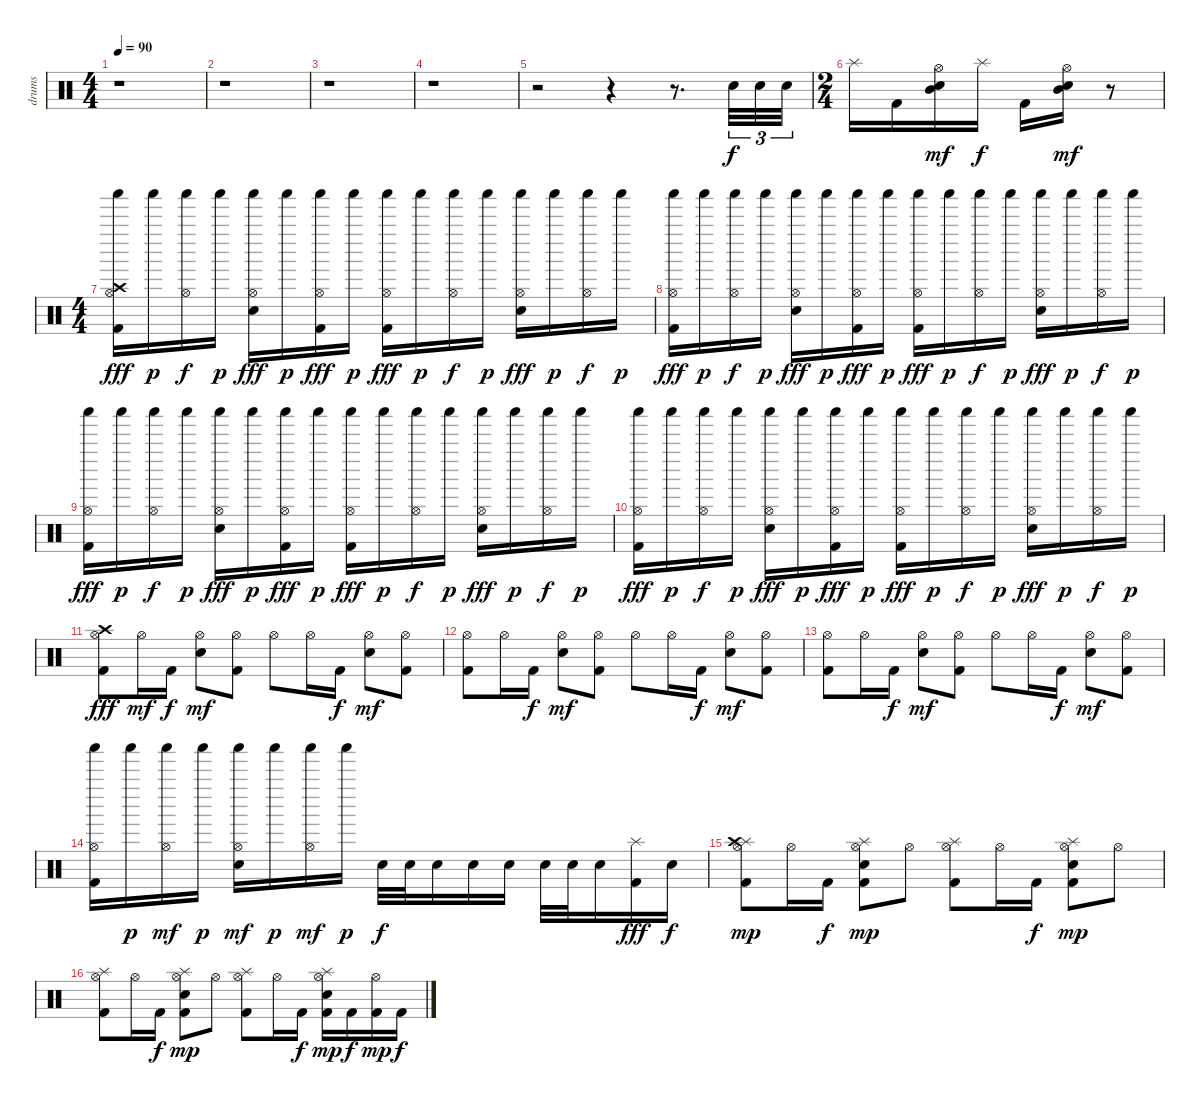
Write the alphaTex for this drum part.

\track ("drums" "drums") {instrument percussion}
\staff {score}
\articulation defaults
\ts (4 4)
\tempo 90
\clef neutral
\ks c
r.1{dy f} |
r.1 |
r.1 |
r.1 |
r.2 r.4 r.8{d} "Snare (hit) 2".32{tu (3 2)} "Snare (hit) 2".32{tu (3 2)} "Snare (hit) 2".32{tu (3 2)} |
\ts (2 4)
"Splash (hit)".16 "Kick (hit) 2".16 ("Mid Tom (hit)" "Hi-Hat (open)" "Snare (hit) 2").16{dy mf} "Splash (hit)".16{dy f} "Kick (hit) 2".16 ("Mid Tom (hit)" "Hi-Hat (open)" "Snare (hit) 2").16{dy mf} r.8 |
\ts (4 4)
("Kick (hit) 2" "Crash high (hit)" "Shaker (hit)" "Hi-Hat (open)").16{dy fff} "Shaker (hit)".16{dy p} ("Shaker (hit)" "Hi-Hat (open)").16{dy f} "Shaker (hit)".16{dy p} ("Shaker (hit)" "Hi-Hat (open)" "Snare (hit) 2").16{dy fff} "Shaker (hit)".16{dy p} ("Kick (hit) 2" "Shaker (hit)" "Hi-Hat (open)").16{dy fff} "Shaker (hit)".16{dy p} ("Kick (hit) 2" "Shaker (hit)" "Hi-Hat (open)").16{dy fff} "Shaker (hit)".16{dy p} ("Shaker (hit)" "Hi-Hat (open)").16{dy f} "Shaker (hit)".16{dy p} ("Shaker (hit)" "Hi-Hat (open)" "Snare (hit) 2").16{dy fff} "Shaker (hit)".16{dy p} ("Shaker (hit)" "Hi-Hat (open)").16{dy f} "Shaker (hit)".16{dy p} |
("Kick (hit) 2" "Shaker (hit)" "Hi-Hat (open)").16{dy fff} "Shaker (hit)".16{dy p} ("Shaker (hit)" "Hi-Hat (open)").16{dy f} "Shaker (hit)".16{dy p} ("Shaker (hit)" "Hi-Hat (open)" "Snare (hit) 2").16{dy fff} "Shaker (hit)".16{dy p} ("Kick (hit) 2" "Shaker (hit)" "Hi-Hat (open)").16{dy fff} "Shaker (hit)".16{dy p} ("Kick (hit) 2" "Shaker (hit)" "Hi-Hat (open)").16{dy fff} "Shaker (hit)".16{dy p} ("Shaker (hit)" "Hi-Hat (open)").16{dy f} "Shaker (hit)".16{dy p} ("Shaker (hit)" "Hi-Hat (open)" "Snare (hit) 2").16{dy fff} "Shaker (hit)".16{dy p} ("Shaker (hit)" "Hi-Hat (open)").16{dy f} "Shaker (hit)".16{dy p} |
("Kick (hit) 2" "Shaker (hit)" "Hi-Hat (open)").16{dy fff} "Shaker (hit)".16{dy p} ("Shaker (hit)" "Hi-Hat (open)").16{dy f} "Shaker (hit)".16{dy p} ("Shaker (hit)" "Hi-Hat (open)" "Snare (hit) 2").16{dy fff} "Shaker (hit)".16{dy p} ("Kick (hit) 2" "Shaker (hit)" "Hi-Hat (open)").16{dy fff} "Shaker (hit)".16{dy p} ("Kick (hit) 2" "Shaker (hit)" "Hi-Hat (open)").16{dy fff} "Shaker (hit)".16{dy p} ("Shaker (hit)" "Hi-Hat (open)").16{dy f} "Shaker (hit)".16{dy p} ("Shaker (hit)" "Hi-Hat (open)" "Snare (hit) 2").16{dy fff} "Shaker (hit)".16{dy p} ("Shaker (hit)" "Hi-Hat (open)").16{dy f} "Shaker (hit)".16{dy p} |
("Kick (hit) 2" "Shaker (hit)" "Hi-Hat (open)").16{dy fff} "Shaker (hit)".16{dy p} ("Shaker (hit)" "Hi-Hat (open)").16{dy f} "Shaker (hit)".16{dy p} ("Shaker (hit)" "Hi-Hat (open)" "Snare (hit) 2").16{dy fff} "Shaker (hit)".16{dy p} ("Kick (hit) 2" "Shaker (hit)" "Hi-Hat (open)").16{dy fff} "Shaker (hit)".16{dy p} ("Kick (hit) 2" "Shaker (hit)" "Hi-Hat (open)").16{dy fff} "Shaker (hit)".16{dy p} ("Shaker (hit)" "Hi-Hat (open)").16{dy f} "Shaker (hit)".16{dy p} ("Shaker (hit)" "Hi-Hat (open)" "Snare (hit) 2").16{dy fff} "Shaker (hit)".16{dy p} ("Shaker (hit)" "Hi-Hat (open)").16{dy f} "Shaker (hit)".16{dy p} |
("Kick (hit) 2" "Crash high (hit)" "Hi-Hat (open)").8{dy fff} "Hi-Hat (open)".16{dy mf} "Kick (hit) 2".16{dy f} ("Hi-Hat (open)" "Snare (hit) 2").8{dy mf} ("Kick (hit) 2" "Hi-Hat (open)").8 "Hi-Hat (open)".8 "Hi-Hat (open)".16 "Kick (hit) 2".16{dy f} ("Hi-Hat (open)" "Snare (hit) 2").8{dy mf} ("Kick (hit) 2" "Hi-Hat (open)").8 |
("Kick (hit) 2" "Hi-Hat (open)").8 "Hi-Hat (open)".16 "Kick (hit) 2".16{dy f} ("Hi-Hat (open)" "Snare (hit) 2").8{dy mf} ("Kick (hit) 2" "Hi-Hat (open)").8 "Hi-Hat (open)".8 "Hi-Hat (open)".16 "Kick (hit) 2".16{dy f} ("Hi-Hat (open)" "Snare (hit) 2").8{dy mf} ("Kick (hit) 2" "Hi-Hat (open)").8 |
("Kick (hit) 2" "Hi-Hat (open)").8 "Hi-Hat (open)".16 "Kick (hit) 2".16{dy f} ("Hi-Hat (open)" "Snare (hit) 2").8{dy mf} ("Kick (hit) 2" "Hi-Hat (open)").8 "Hi-Hat (open)".8 "Hi-Hat (open)".16 "Kick (hit) 2".16{dy f} ("Hi-Hat (open)" "Snare (hit) 2").8{dy mf} ("Kick (hit) 2" "Hi-Hat (open)").8 |
("Kick (hit) 2" "Shaker (hit)" "Hi-Hat (open)").16 "Shaker (hit)".16{dy p} ("Shaker (hit)" "Hi-Hat (open)").16{dy mf} "Shaker (hit)".16{dy p} ("Shaker (hit)" "Hi-Hat (open)" "Snare (hit) 2").16{dy mf} "Shaker (hit)".16{dy p} ("Shaker (hit)" "Hi-Hat (open)").16{dy mf} "Shaker (hit)".16{dy p} "Electric Snare (hit)".32{dy f} "Electric Snare (hit)".32 "Electric Snare (hit)".16 "Electric Snare (hit)".16 "Electric Snare (hit)".16 "Electric Snare (hit)".32 "Electric Snare (hit)".32 "Electric Snare (hit)".16 ("Kick (hit) 2" "Splash (hit)").16{dy fff} "Electric Snare (hit)".16{dy f} |
("Kick (hit) 2" "Splash (hit)" "Crash high (hit)" "Hi-Hat (open)").8{dy mp} "Hi-Hat (open)".16 "Kick (hit) 2".16{dy f} ("Kick (hit) 2" "Splash (hit)" "Hi-Hat (open)" "Snare (hit) 2").8{dy mp} "Hi-Hat (open)".8 ("Kick (hit) 2" "Splash (hit)" "Hi-Hat (open)").8 "Hi-Hat (open)".16 "Kick (hit) 2".16{dy f} ("Kick (hit) 2" "Splash (hit)" "Hi-Hat (open)" "Snare (hit) 2").8{dy mp} "Hi-Hat (open)".8 |
("Kick (hit) 2" "Splash (hit)" "Hi-Hat (open)").8 "Hi-Hat (open)".16 "Kick (hit) 2".16{dy f} ("Kick (hit) 2" "Splash (hit)" "Hi-Hat (open)" "Snare (hit) 2").8{dy mp} "Hi-Hat (open)".8 ("Kick (hit) 2" "Splash (hit)" "Hi-Hat (open)").8 "Hi-Hat (open)".16 "Kick (hit) 2".16{dy f} ("Kick (hit) 2" "Splash (hit)" "Hi-Hat (open)" "Snare (hit) 2").16{dy mp} "Kick (hit) 2".16{dy f} ("Kick (hit) 2" "Hi-Hat (open)").16{dy mp} "Kick (hit) 2".16{dy f}
